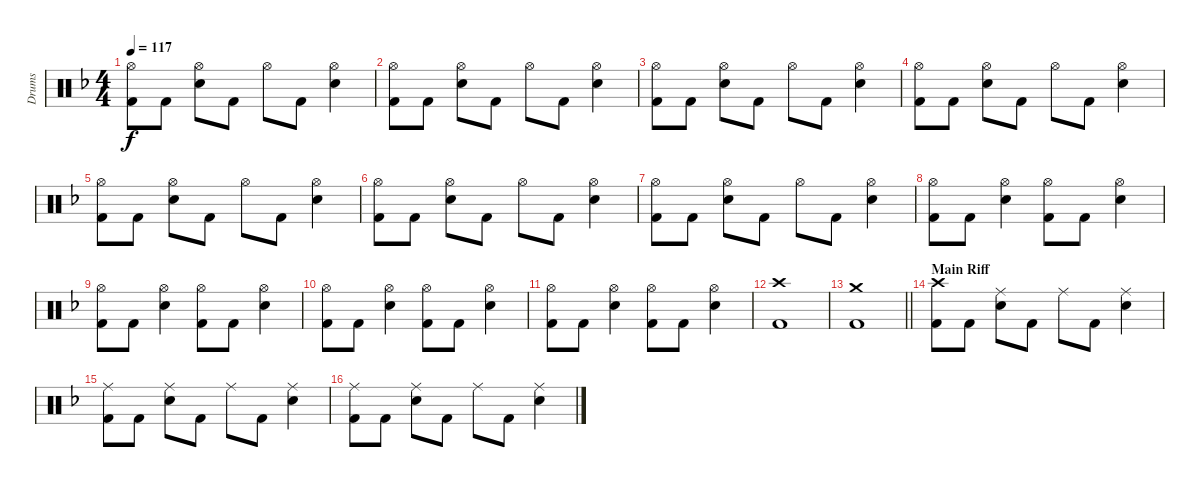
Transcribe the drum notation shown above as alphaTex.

\track ("Drums" "Drums") {instrument percussion}
\staff {score}
\articulation defaults
\ts (4 4)
\tempo 117
\clef neutral
\ks dminor
("Hi-Hat (open)" "Kick (hit) 2").8{dy f} "Kick (hit) 2".8 ("Hi-Hat (open)" "Snare (hit) 2").8 "Kick (hit) 2".8 "Hi-Hat (open)".8 "Kick (hit) 2".8 ("Hi-Hat (open)" "Snare (hit) 2").4 |
("Hi-Hat (open)" "Kick (hit) 2").8 "Kick (hit) 2".8 ("Hi-Hat (open)" "Snare (hit) 2").8 "Kick (hit) 2".8 "Hi-Hat (open)".8 "Kick (hit) 2".8 ("Hi-Hat (open)" "Snare (hit) 2").4 |
("Hi-Hat (open)" "Kick (hit) 2").8 "Kick (hit) 2".8 ("Hi-Hat (open)" "Snare (hit) 2").8 "Kick (hit) 2".8 "Hi-Hat (open)".8 "Kick (hit) 2".8 ("Hi-Hat (open)" "Snare (hit) 2").4 |
("Hi-Hat (open)" "Kick (hit) 2").8 "Kick (hit) 2".8 ("Hi-Hat (open)" "Snare (hit) 2").8 "Kick (hit) 2".8 "Hi-Hat (open)".8 "Kick (hit) 2".8 ("Hi-Hat (open)" "Snare (hit) 2").4 |
("Hi-Hat (open)" "Kick (hit) 2").8 "Kick (hit) 2".8 ("Hi-Hat (open)" "Snare (hit) 2").8 "Kick (hit) 2".8 "Hi-Hat (open)".8 "Kick (hit) 2".8 ("Hi-Hat (open)" "Snare (hit) 2").4 |
("Hi-Hat (open)" "Kick (hit) 2").8 "Kick (hit) 2".8 ("Hi-Hat (open)" "Snare (hit) 2").8 "Kick (hit) 2".8 "Hi-Hat (open)".8 "Kick (hit) 2".8 ("Hi-Hat (open)" "Snare (hit) 2").4 |
("Hi-Hat (open)" "Kick (hit) 2").8 "Kick (hit) 2".8 ("Hi-Hat (open)" "Snare (hit) 2").8 "Kick (hit) 2".8 "Hi-Hat (open)".8 "Kick (hit) 2".8 ("Hi-Hat (open)" "Snare (hit) 2").4 |
("Hi-Hat (open)" "Kick (hit) 2").8 "Kick (hit) 2".8 ("Hi-Hat (open)" "Snare (hit) 2").4 ("Hi-Hat (open)" "Kick (hit) 2").8 "Kick (hit) 2".8 ("Hi-Hat (open)" "Snare (hit) 2").4 |
("Hi-Hat (open)" "Kick (hit) 2").8 "Kick (hit) 2".8 ("Hi-Hat (open)" "Snare (hit) 2").4 ("Hi-Hat (open)" "Kick (hit) 2").8 "Kick (hit) 2".8 ("Hi-Hat (open)" "Snare (hit) 2").4 |
("Hi-Hat (open)" "Kick (hit) 2").8 "Kick (hit) 2".8 ("Hi-Hat (open)" "Snare (hit) 2").4 ("Hi-Hat (open)" "Kick (hit) 2").8 "Kick (hit) 2".8 ("Hi-Hat (open)" "Snare (hit) 2").4 |
("Hi-Hat (open)" "Kick (hit) 2").8 "Kick (hit) 2".8 ("Hi-Hat (open)" "Snare (hit) 2").4 ("Hi-Hat (open)" "Kick (hit) 2").8 "Kick (hit) 2".8 ("Hi-Hat (open)" "Snare (hit) 2").4 |
("Kick (hit) 2" "Crash high (hit)").1 |
\barLineRight lightlight
("Kick (hit) 2" "Crash medium (hit)").1 |
\section ("" "Main Riff")
("Kick (hit) 2" "Crash high (hit)").8 "Kick (hit) 2".8 ("Snare (hit) 2" "Ride (middle)").8 "Kick (hit) 2".8 "Ride (middle)".8 "Kick (hit) 2".8 ("Snare (hit) 2" "Ride (middle)").4 |
("Kick (hit) 2" "Ride (middle)").8 "Kick (hit) 2".8 ("Snare (hit) 2" "Ride (middle)").8 "Kick (hit) 2".8 "Ride (middle)".8 "Kick (hit) 2".8 ("Snare (hit) 2" "Ride (middle)").4 |
("Kick (hit) 2" "Ride (middle)").8 "Kick (hit) 2".8 ("Snare (hit) 2" "Ride (middle)").8 "Kick (hit) 2".8 "Ride (middle)".8 "Kick (hit) 2".8 ("Snare (hit) 2" "Ride (middle)").4
